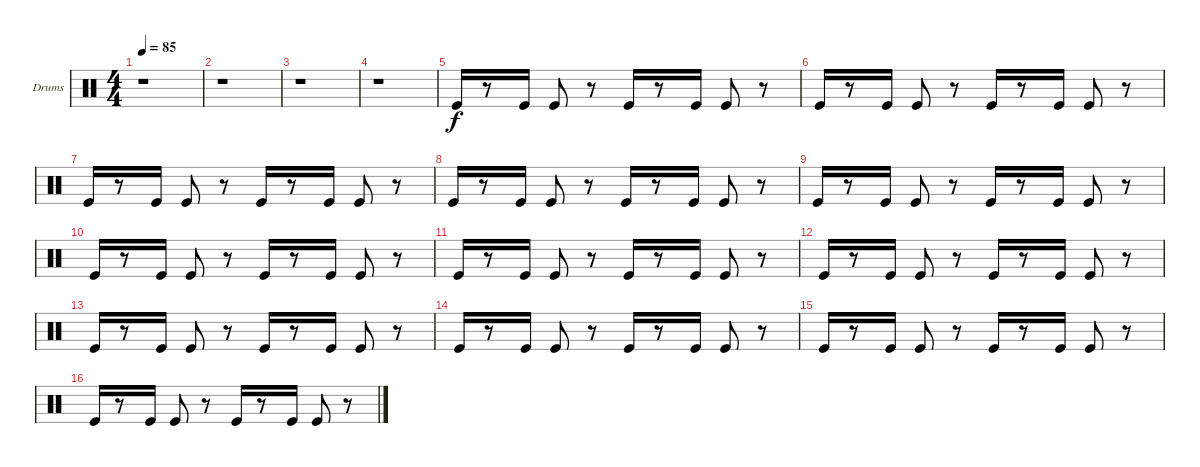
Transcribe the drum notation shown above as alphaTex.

\bracketExtendMode groupsimilarinstruments
\firstSystemTrackNameOrientation horizontal
\otherSystemsTrackNameOrientation horizontal
\track ("Drumkit" "Drums") {instrument percussion}
\staff {score}
\articulation defaults
\ts (4 4)
\tempo 85
\clef neutral
\ks c
r.1{dy f} |
r.1 |
r.1 |
r.1 |
"Kick (hit)".16 r.8 "Kick (hit)".16 "Kick (hit)".8 r.8 "Kick (hit)".16 r.8 "Kick (hit)".16 "Kick (hit)".8 r.8 |
"Kick (hit)".16 r.8 "Kick (hit)".16 "Kick (hit)".8 r.8 "Kick (hit)".16 r.8 "Kick (hit)".16 "Kick (hit)".8 r.8 |
"Kick (hit)".16 r.8 "Kick (hit)".16 "Kick (hit)".8 r.8 "Kick (hit)".16 r.8 "Kick (hit)".16 "Kick (hit)".8 r.8 |
"Kick (hit)".16 r.8 "Kick (hit)".16 "Kick (hit)".8 r.8 "Kick (hit)".16 r.8 "Kick (hit)".16 "Kick (hit)".8 r.8 |
"Kick (hit)".16 r.8 "Kick (hit)".16 "Kick (hit)".8 r.8 "Kick (hit)".16 r.8 "Kick (hit)".16 "Kick (hit)".8 r.8 |
"Kick (hit)".16 r.8 "Kick (hit)".16 "Kick (hit)".8 r.8 "Kick (hit)".16 r.8 "Kick (hit)".16 "Kick (hit)".8 r.8 |
"Kick (hit)".16 r.8 "Kick (hit)".16 "Kick (hit)".8 r.8 "Kick (hit)".16 r.8 "Kick (hit)".16 "Kick (hit)".8 r.8 |
"Kick (hit)".16 r.8 "Kick (hit)".16 "Kick (hit)".8 r.8 "Kick (hit)".16 r.8 "Kick (hit)".16 "Kick (hit)".8 r.8 |
"Kick (hit)".16 r.8 "Kick (hit)".16 "Kick (hit)".8 r.8 "Kick (hit)".16 r.8 "Kick (hit)".16 "Kick (hit)".8 r.8 |
"Kick (hit)".16 r.8 "Kick (hit)".16 "Kick (hit)".8 r.8 "Kick (hit)".16 r.8 "Kick (hit)".16 "Kick (hit)".8 r.8 |
"Kick (hit)".16 r.8 "Kick (hit)".16 "Kick (hit)".8 r.8 "Kick (hit)".16 r.8 "Kick (hit)".16 "Kick (hit)".8 r.8 |
"Kick (hit)".16 r.8 "Kick (hit)".16 "Kick (hit)".8 r.8 "Kick (hit)".16 r.8 "Kick (hit)".16 "Kick (hit)".8 r.8
